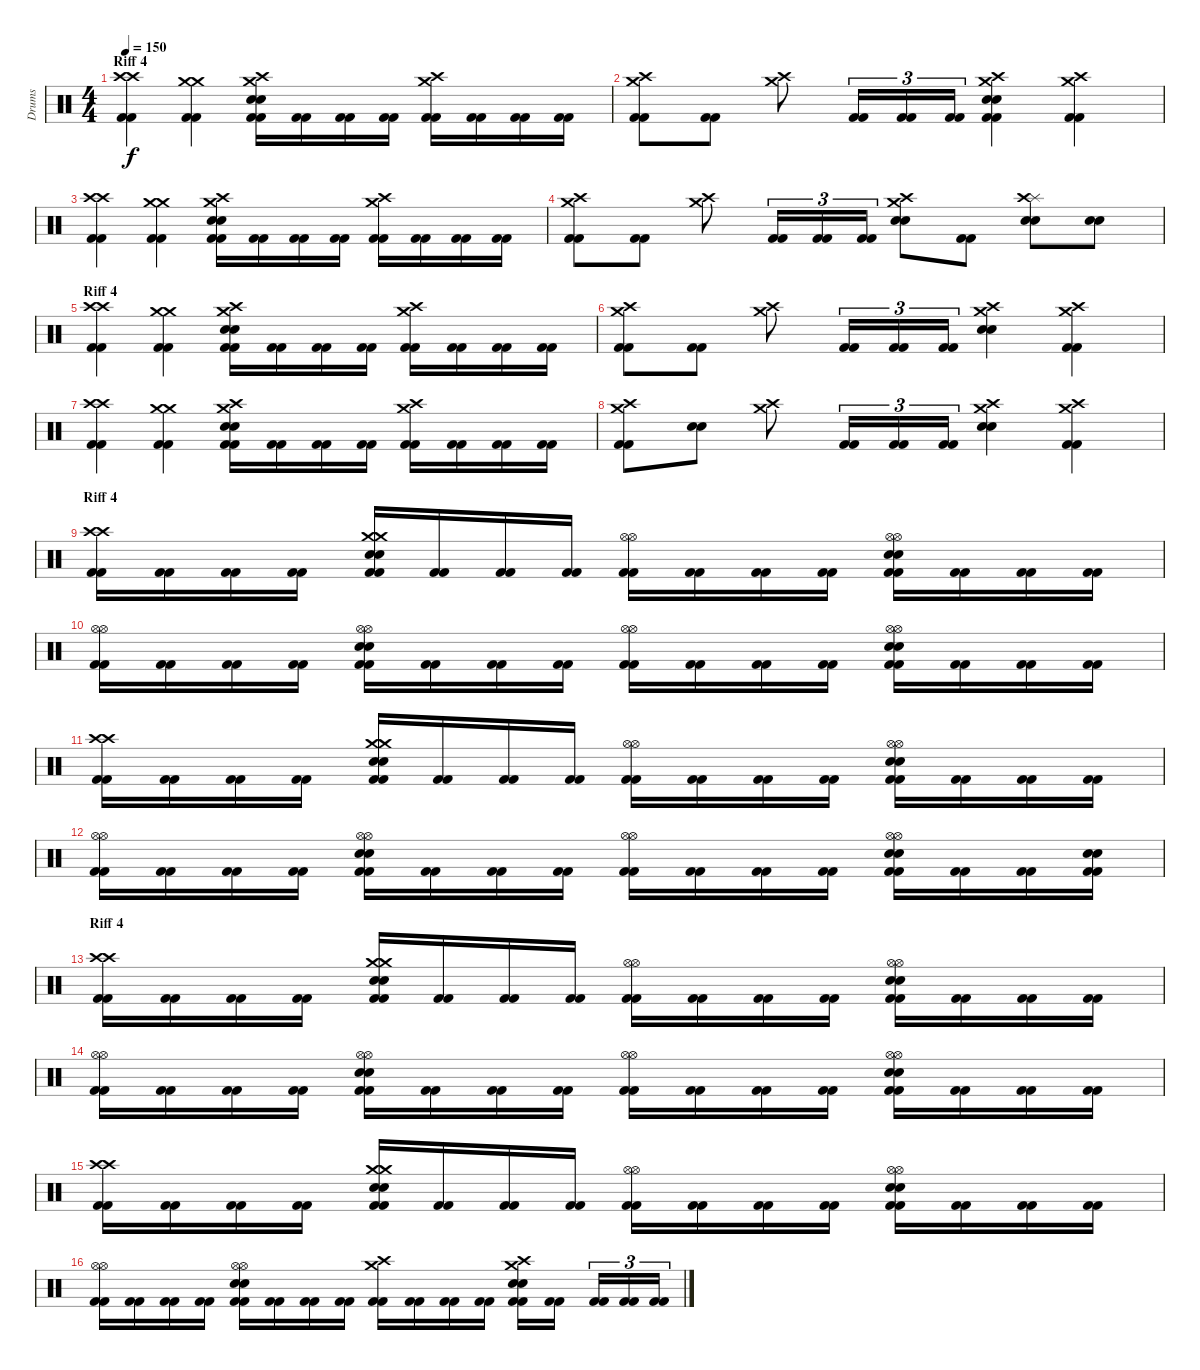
\track ("Drums" "Drums") {instrument percussion}
\staff {score}
\articulation defaults
\ts (4 4)
\section ("" "Riff 4")
\tempo 150
\clef neutral
\ks c
("Crash high (hit)" "Crash high (hit)" "Kick (hit) 2" "Kick (hit) 2").4{dy f} ("Crash medium (hit)" "Crash medium (hit)" "Kick (hit) 2" "Kick (hit) 2").4 ("Crash medium (hit)" "Crash high (hit)" "Electric Snare (hit)" "Electric Snare (hit)" "Kick (hit) 2" "Kick (hit) 2").16 ("Kick (hit) 2" "Kick (hit) 2").16 ("Kick (hit) 2" "Kick (hit) 2").16 ("Kick (hit) 2" "Kick (hit) 2").16 ("Crash medium (hit)" "Crash high (hit)" "Kick (hit) 2" "Kick (hit) 2").16 ("Kick (hit) 2" "Kick (hit) 2").16 ("Kick (hit) 2" "Kick (hit) 2").16 ("Kick (hit) 2" "Kick (hit) 2").16 |
("Crash medium (hit)" "Crash high (hit)" "Kick (hit) 2" "Kick (hit) 2").8 ("Kick (hit) 2" "Kick (hit) 2").8 ("Crash medium (hit)" "Crash high (hit)").8 ("Kick (hit) 2" "Kick (hit) 2").16{tu (3 2)} ("Kick (hit) 2" "Kick (hit) 2").16{tu (3 2)} ("Kick (hit) 2" "Kick (hit) 2").16{tu (3 2)} ("Crash medium (hit)" "Crash high (hit)" "Electric Snare (hit)" "Electric Snare (hit)" "Kick (hit) 2" "Kick (hit) 2").4 ("Crash medium (hit)" "Crash high (hit)" "Kick (hit) 2" "Kick (hit) 2").4 |
("Crash high (hit)" "Crash high (hit)" "Kick (hit) 2" "Kick (hit) 2").4 ("Crash medium (hit)" "Crash medium (hit)" "Kick (hit) 2" "Kick (hit) 2").4 ("Crash medium (hit)" "Crash high (hit)" "Electric Snare (hit)" "Electric Snare (hit)" "Kick (hit) 2" "Kick (hit) 2").16 ("Kick (hit) 2" "Kick (hit) 2").16 ("Kick (hit) 2" "Kick (hit) 2").16 ("Kick (hit) 2" "Kick (hit) 2").16 ("Crash medium (hit)" "Crash high (hit)" "Kick (hit) 2" "Kick (hit) 2").16 ("Kick (hit) 2" "Kick (hit) 2").16 ("Kick (hit) 2" "Kick (hit) 2").16 ("Kick (hit) 2" "Kick (hit) 2").16 |
("Crash medium (hit)" "Crash high (hit)" "Kick (hit) 2" "Kick (hit) 2").8 ("Kick (hit) 2" "Kick (hit) 2").8 ("Crash medium (hit)" "Crash high (hit)").8 ("Kick (hit) 2" "Kick (hit) 2").16{tu (3 2)} ("Kick (hit) 2" "Kick (hit) 2").16{tu (3 2)} ("Kick (hit) 2" "Kick (hit) 2").16{tu (3 2)} ("Crash medium (hit)" "Crash high (hit)" "Electric Snare (hit)" "Electric Snare (hit)").8 ("Kick (hit) 2" "Kick (hit) 2").8 ("Splash (hit)" "Crash high (hit)" "Electric Snare (hit)" "Electric Snare (hit)").8 ("Electric Snare (hit)" "Electric Snare (hit)").8 |
\section ("" "Riff 4")
("Crash high (hit)" "Crash high (hit)" "Kick (hit) 2" "Kick (hit) 2").4 ("Crash medium (hit)" "Crash medium (hit)" "Kick (hit) 2" "Kick (hit) 2").4 ("Crash medium (hit)" "Crash high (hit)" "Electric Snare (hit)" "Electric Snare (hit)" "Kick (hit) 2" "Kick (hit) 2").16 ("Kick (hit) 2" "Kick (hit) 2").16 ("Kick (hit) 2" "Kick (hit) 2").16 ("Kick (hit) 2" "Kick (hit) 2").16 ("Crash medium (hit)" "Crash high (hit)" "Kick (hit) 2" "Kick (hit) 2").16 ("Kick (hit) 2" "Kick (hit) 2").16 ("Kick (hit) 2" "Kick (hit) 2").16 ("Kick (hit) 2" "Kick (hit) 2").16 |
("Crash medium (hit)" "Crash high (hit)" "Kick (hit) 2" "Kick (hit) 2").8 ("Kick (hit) 2" "Kick (hit) 2").8 ("Crash medium (hit)" "Crash high (hit)").8 ("Kick (hit) 2" "Kick (hit) 2").16{tu (3 2)} ("Kick (hit) 2" "Kick (hit) 2").16{tu (3 2)} ("Kick (hit) 2" "Kick (hit) 2").16{tu (3 2)} ("Crash medium (hit)" "Crash high (hit)" "Electric Snare (hit)" "Electric Snare (hit)").4 ("Crash medium (hit)" "Crash high (hit)" "Kick (hit) 2" "Kick (hit) 2").4 |
("Crash high (hit)" "Crash high (hit)" "Kick (hit) 2" "Kick (hit) 2").4 ("Crash medium (hit)" "Crash medium (hit)" "Kick (hit) 2" "Kick (hit) 2").4 ("Crash medium (hit)" "Crash high (hit)" "Electric Snare (hit)" "Electric Snare (hit)" "Kick (hit) 2" "Kick (hit) 2").16 ("Kick (hit) 2" "Kick (hit) 2").16 ("Kick (hit) 2" "Kick (hit) 2").16 ("Kick (hit) 2" "Kick (hit) 2").16 ("Crash medium (hit)" "Crash high (hit)" "Kick (hit) 2" "Kick (hit) 2").16 ("Kick (hit) 2" "Kick (hit) 2").16 ("Kick (hit) 2" "Kick (hit) 2").16 ("Kick (hit) 2" "Kick (hit) 2").16 |
("Crash medium (hit)" "Crash high (hit)" "Kick (hit) 2" "Kick (hit) 2").8 ("Electric Snare (hit)" "Electric Snare (hit)").8 ("Crash medium (hit)" "Crash high (hit)").8 ("Kick (hit) 2" "Kick (hit) 2").16{tu (3 2)} ("Kick (hit) 2" "Kick (hit) 2").16{tu (3 2)} ("Kick (hit) 2" "Kick (hit) 2").16{tu (3 2)} ("Crash medium (hit)" "Crash high (hit)" "Electric Snare (hit)" "Electric Snare (hit)").4 ("Crash medium (hit)" "Crash high (hit)" "Kick (hit) 2" "Kick (hit) 2").4 |
\section ("" "Riff 4")
("Crash high (hit)" "Crash high (hit)" "Kick (hit) 2" "Kick (hit) 2").16 ("Kick (hit) 2" "Kick (hit) 2").16 ("Kick (hit) 2" "Kick (hit) 2").16 ("Kick (hit) 2" "Kick (hit) 2").16 ("Crash medium (hit)" "Crash medium (hit)" "Electric Snare (hit)" "Electric Snare (hit)" "Kick (hit) 2" "Kick (hit) 2").16 ("Kick (hit) 2" "Kick (hit) 2").16 ("Kick (hit) 2" "Kick (hit) 2").16 ("Kick (hit) 2" "Kick (hit) 2").16 ("Hi-Hat (open)" "Hi-Hat (open)" "Kick (hit) 2" "Kick (hit) 2").16 ("Kick (hit) 2" "Kick (hit) 2").16 ("Kick (hit) 2" "Kick (hit) 2").16 ("Kick (hit) 2" "Kick (hit) 2").16 ("Hi-Hat (open)" "Hi-Hat (open)" "Electric Snare (hit)" "Electric Snare (hit)" "Kick (hit) 2" "Kick (hit) 2").16 ("Kick (hit) 2" "Kick (hit) 2").16 ("Kick (hit) 2" "Kick (hit) 2").16 ("Kick (hit) 2" "Kick (hit) 2").16 |
("Hi-Hat (open)" "Hi-Hat (open)" "Kick (hit) 2" "Kick (hit) 2").16 ("Kick (hit) 2" "Kick (hit) 2").16 ("Kick (hit) 2" "Kick (hit) 2").16 ("Kick (hit) 2" "Kick (hit) 2").16 ("Hi-Hat (open)" "Hi-Hat (open)" "Electric Snare (hit)" "Electric Snare (hit)" "Kick (hit) 2" "Kick (hit) 2").16 ("Kick (hit) 2" "Kick (hit) 2").16 ("Kick (hit) 2" "Kick (hit) 2").16 ("Kick (hit) 2" "Kick (hit) 2").16 ("Hi-Hat (open)" "Hi-Hat (open)" "Kick (hit) 2" "Kick (hit) 2").16 ("Kick (hit) 2" "Kick (hit) 2").16 ("Kick (hit) 2" "Kick (hit) 2").16 ("Kick (hit) 2" "Kick (hit) 2").16 ("Hi-Hat (open)" "Hi-Hat (open)" "Electric Snare (hit)" "Electric Snare (hit)" "Kick (hit) 2" "Kick (hit) 2").16 ("Kick (hit) 2" "Kick (hit) 2").16 ("Kick (hit) 2" "Kick (hit) 2").16 ("Kick (hit) 2" "Kick (hit) 2").16 |
("Crash high (hit)" "Crash high (hit)" "Kick (hit) 2" "Kick (hit) 2").16 ("Kick (hit) 2" "Kick (hit) 2").16 ("Kick (hit) 2" "Kick (hit) 2").16 ("Kick (hit) 2" "Kick (hit) 2").16 ("Crash medium (hit)" "Crash medium (hit)" "Electric Snare (hit)" "Electric Snare (hit)" "Kick (hit) 2" "Kick (hit) 2").16 ("Kick (hit) 2" "Kick (hit) 2").16 ("Kick (hit) 2" "Kick (hit) 2").16 ("Kick (hit) 2" "Kick (hit) 2").16 ("Hi-Hat (open)" "Hi-Hat (open)" "Kick (hit) 2" "Kick (hit) 2").16 ("Kick (hit) 2" "Kick (hit) 2").16 ("Kick (hit) 2" "Kick (hit) 2").16 ("Kick (hit) 2" "Kick (hit) 2").16 ("Hi-Hat (open)" "Hi-Hat (open)" "Electric Snare (hit)" "Electric Snare (hit)" "Kick (hit) 2" "Kick (hit) 2").16 ("Kick (hit) 2" "Kick (hit) 2").16 ("Kick (hit) 2" "Kick (hit) 2").16 ("Kick (hit) 2" "Kick (hit) 2").16 |
("Hi-Hat (open)" "Hi-Hat (open)" "Kick (hit) 2" "Kick (hit) 2").16 ("Kick (hit) 2" "Kick (hit) 2").16 ("Kick (hit) 2" "Kick (hit) 2").16 ("Kick (hit) 2" "Kick (hit) 2").16 ("Hi-Hat (open)" "Hi-Hat (open)" "Electric Snare (hit)" "Electric Snare (hit)" "Kick (hit) 2" "Kick (hit) 2").16 ("Kick (hit) 2" "Kick (hit) 2").16 ("Kick (hit) 2" "Kick (hit) 2").16 ("Kick (hit) 2" "Kick (hit) 2").16 ("Hi-Hat (open)" "Hi-Hat (open)" "Kick (hit) 2" "Kick (hit) 2").16 ("Kick (hit) 2" "Kick (hit) 2").16 ("Kick (hit) 2" "Kick (hit) 2").16 ("Kick (hit) 2" "Kick (hit) 2").16 ("Hi-Hat (open)" "Hi-Hat (open)" "Electric Snare (hit)" "Electric Snare (hit)" "Kick (hit) 2" "Kick (hit) 2").16 ("Kick (hit) 2" "Kick (hit) 2").16 ("Kick (hit) 2" "Kick (hit) 2").16 ("Electric Snare (hit)" "Electric Snare (hit)" "Kick (hit) 2" "Kick (hit) 2").16 |
\section ("" "Riff 4")
("Crash high (hit)" "Crash high (hit)" "Kick (hit) 2" "Kick (hit) 2").16 ("Kick (hit) 2" "Kick (hit) 2").16 ("Kick (hit) 2" "Kick (hit) 2").16 ("Kick (hit) 2" "Kick (hit) 2").16 ("Crash medium (hit)" "Crash medium (hit)" "Electric Snare (hit)" "Electric Snare (hit)" "Kick (hit) 2" "Kick (hit) 2").16 ("Kick (hit) 2" "Kick (hit) 2").16 ("Kick (hit) 2" "Kick (hit) 2").16 ("Kick (hit) 2" "Kick (hit) 2").16 ("Hi-Hat (open)" "Hi-Hat (open)" "Kick (hit) 2" "Kick (hit) 2").16 ("Kick (hit) 2" "Kick (hit) 2").16 ("Kick (hit) 2" "Kick (hit) 2").16 ("Kick (hit) 2" "Kick (hit) 2").16 ("Hi-Hat (open)" "Hi-Hat (open)" "Electric Snare (hit)" "Electric Snare (hit)" "Kick (hit) 2" "Kick (hit) 2").16 ("Kick (hit) 2" "Kick (hit) 2").16 ("Kick (hit) 2" "Kick (hit) 2").16 ("Kick (hit) 2" "Kick (hit) 2").16 |
("Hi-Hat (open)" "Hi-Hat (open)" "Kick (hit) 2" "Kick (hit) 2").16 ("Kick (hit) 2" "Kick (hit) 2").16 ("Kick (hit) 2" "Kick (hit) 2").16 ("Kick (hit) 2" "Kick (hit) 2").16 ("Hi-Hat (open)" "Hi-Hat (open)" "Electric Snare (hit)" "Electric Snare (hit)" "Kick (hit) 2" "Kick (hit) 2").16 ("Kick (hit) 2" "Kick (hit) 2").16 ("Kick (hit) 2" "Kick (hit) 2").16 ("Kick (hit) 2" "Kick (hit) 2").16 ("Hi-Hat (open)" "Hi-Hat (open)" "Kick (hit) 2" "Kick (hit) 2").16 ("Kick (hit) 2" "Kick (hit) 2").16 ("Kick (hit) 2" "Kick (hit) 2").16 ("Kick (hit) 2" "Kick (hit) 2").16 ("Hi-Hat (open)" "Hi-Hat (open)" "Electric Snare (hit)" "Electric Snare (hit)" "Kick (hit) 2" "Kick (hit) 2").16 ("Kick (hit) 2" "Kick (hit) 2").16 ("Kick (hit) 2" "Kick (hit) 2").16 ("Kick (hit) 2" "Kick (hit) 2").16 |
("Crash high (hit)" "Crash high (hit)" "Kick (hit) 2" "Kick (hit) 2").16 ("Kick (hit) 2" "Kick (hit) 2").16 ("Kick (hit) 2" "Kick (hit) 2").16 ("Kick (hit) 2" "Kick (hit) 2").16 ("Crash medium (hit)" "Crash medium (hit)" "Electric Snare (hit)" "Electric Snare (hit)" "Kick (hit) 2" "Kick (hit) 2").16 ("Kick (hit) 2" "Kick (hit) 2").16 ("Kick (hit) 2" "Kick (hit) 2").16 ("Kick (hit) 2" "Kick (hit) 2").16 ("Hi-Hat (open)" "Hi-Hat (open)" "Kick (hit) 2" "Kick (hit) 2").16 ("Kick (hit) 2" "Kick (hit) 2").16 ("Kick (hit) 2" "Kick (hit) 2").16 ("Kick (hit) 2" "Kick (hit) 2").16 ("Hi-Hat (open)" "Hi-Hat (open)" "Electric Snare (hit)" "Electric Snare (hit)" "Kick (hit) 2" "Kick (hit) 2").16 ("Kick (hit) 2" "Kick (hit) 2").16 ("Kick (hit) 2" "Kick (hit) 2").16 ("Kick (hit) 2" "Kick (hit) 2").16 |
("Hi-Hat (open)" "Hi-Hat (open)" "Kick (hit) 2" "Kick (hit) 2").16 ("Kick (hit) 2" "Kick (hit) 2").16 ("Kick (hit) 2" "Kick (hit) 2").16 ("Kick (hit) 2" "Kick (hit) 2").16 ("Hi-Hat (open)" "Hi-Hat (open)" "Electric Snare (hit)" "Electric Snare (hit)" "Kick (hit) 2" "Kick (hit) 2").16 ("Kick (hit) 2" "Kick (hit) 2").16 ("Kick (hit) 2" "Kick (hit) 2").16 ("Kick (hit) 2" "Kick (hit) 2").16 ("Crash medium (hit)" "Crash high (hit)" "Kick (hit) 2" "Kick (hit) 2").16 ("Kick (hit) 2" "Kick (hit) 2").16 ("Kick (hit) 2" "Kick (hit) 2").16 ("Kick (hit) 2" "Kick (hit) 2").16 ("Crash high (hit)" "Crash medium (hit)" "Electric Snare (hit)" "Electric Snare (hit)" "Kick (hit) 2" "Kick (hit) 2").16 ("Kick (hit) 2" "Kick (hit) 2").16 ("Kick (hit) 2" "Kick (hit) 2").16{tu (3 2)} ("Kick (hit) 2" "Kick (hit) 2").16{tu (3 2)} ("Kick (hit) 2" "Kick (hit) 2").16{tu (3 2)}
